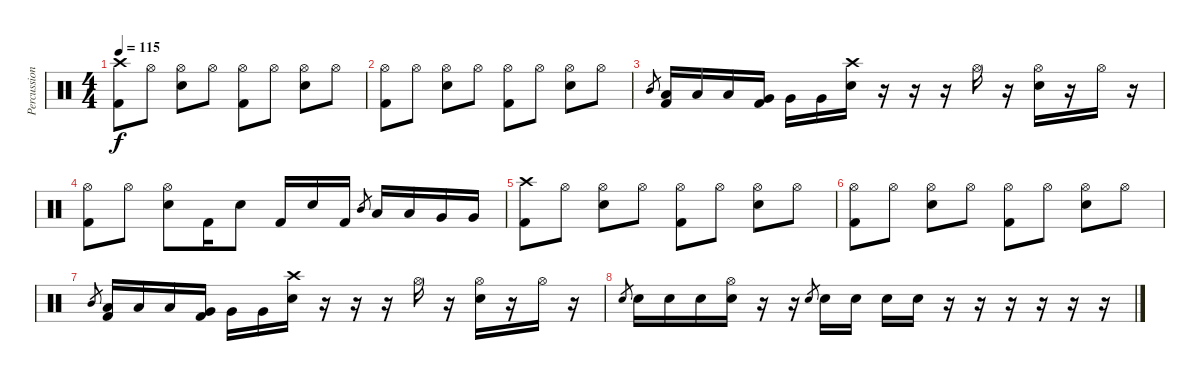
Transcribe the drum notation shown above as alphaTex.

\track ("Percussion" "Percussion") {instrument percussion}
\staff {score}
\articulation defaults
\ts (4 4)
\tempo 115
\clef neutral
\ks c
("Crash high (hit)" "Kick (hit) 2").8{dy f} "Hi-Hat (open)".8 ("Hi-Hat (open)" "Snare (hit) 2").8 "Hi-Hat (open)".8 ("Hi-Hat (open)" "Kick (hit) 2").8 "Hi-Hat (open)".8 ("Hi-Hat (open)" "Snare (hit) 2").8 "Hi-Hat (open)".8 |
("Hi-Hat (open)" "Kick (hit) 2").8 "Hi-Hat (open)".8 ("Hi-Hat (open)" "Snare (hit) 2").8 "Hi-Hat (open)".8 ("Hi-Hat (open)" "Kick (hit) 2").8 "Hi-Hat (open)".8 ("Hi-Hat (open)" "Snare (hit) 2").8 "Hi-Hat (open)".8 |
"Mid Tom (hit)".8{gr} ("Low Tom (hit)" "Kick (hit) 2").16 "Low Tom (hit)".16 "Low Tom (hit)".16 ("Very Low Tom (hit)" "Kick (hit) 2").16 "Very Low Tom (hit)".16 "Very Low Tom (hit)".16 ("Crash high (hit)" "Snare (hit) 2").16 r.16 r.16 r.16 "Hi-Hat (open)".16 r.16 ("Hi-Hat (open)" "Snare (hit) 2").16 r.16 "Hi-Hat (open)".16 r.16 |
("Hi-Hat (open)" "Kick (hit) 2").8 "Hi-Hat (open)".8 ("Hi-Hat (open)" "Snare (hit) 2").8 "Kick (hit) 2".16 "Snare (hit) 2".8 "Kick (hit) 2".16 "Snare (hit) 2".16 "Kick (hit) 2".16 "Mid Tom (hit)".8{gr} "Low Tom (hit)".16 "Low Tom (hit)".16 "Very Low Tom (hit)".16 "Very Low Tom (hit)".16 |
("Crash high (hit)" "Kick (hit) 2").8 "Hi-Hat (open)".8 ("Hi-Hat (open)" "Snare (hit) 2").8 "Hi-Hat (open)".8 ("Hi-Hat (open)" "Kick (hit) 2").8 "Hi-Hat (open)".8 ("Hi-Hat (open)" "Snare (hit) 2").8 "Hi-Hat (open)".8 |
("Hi-Hat (open)" "Kick (hit) 2").8 "Hi-Hat (open)".8 ("Hi-Hat (open)" "Snare (hit) 2").8 "Hi-Hat (open)".8 ("Hi-Hat (open)" "Kick (hit) 2").8 "Hi-Hat (open)".8 ("Hi-Hat (open)" "Snare (hit) 2").8 "Hi-Hat (open)".8 |
"Mid Tom (hit)".8{gr} ("Low Tom (hit)" "Kick (hit) 2").16 "Low Tom (hit)".16 "Low Tom (hit)".16 ("Very Low Tom (hit)" "Kick (hit) 2").16 "Very Low Tom (hit)".16 "Very Low Tom (hit)".16 ("Crash high (hit)" "Snare (hit) 2").16 r.16 r.16 r.16 "Hi-Hat (open)".16 r.16 ("Hi-Hat (open)" "Snare (hit) 2").16 r.16 "Hi-Hat (open)".16 r.16 |
"Snare (hit) 2".8{gr} "Snare (hit) 2".16 "Snare (hit) 2".16 "Snare (hit) 2".16 ("Hi-Hat (open)" "Snare (hit) 2").16 r.16 r.16 "Snare (hit) 2".8{gr} "Snare (hit) 2".16 "Snare (hit) 2".16 "Snare (hit) 2".16 "Snare (hit) 2".16 r.16 r.16 r.16 r.16 r.16 r.16
